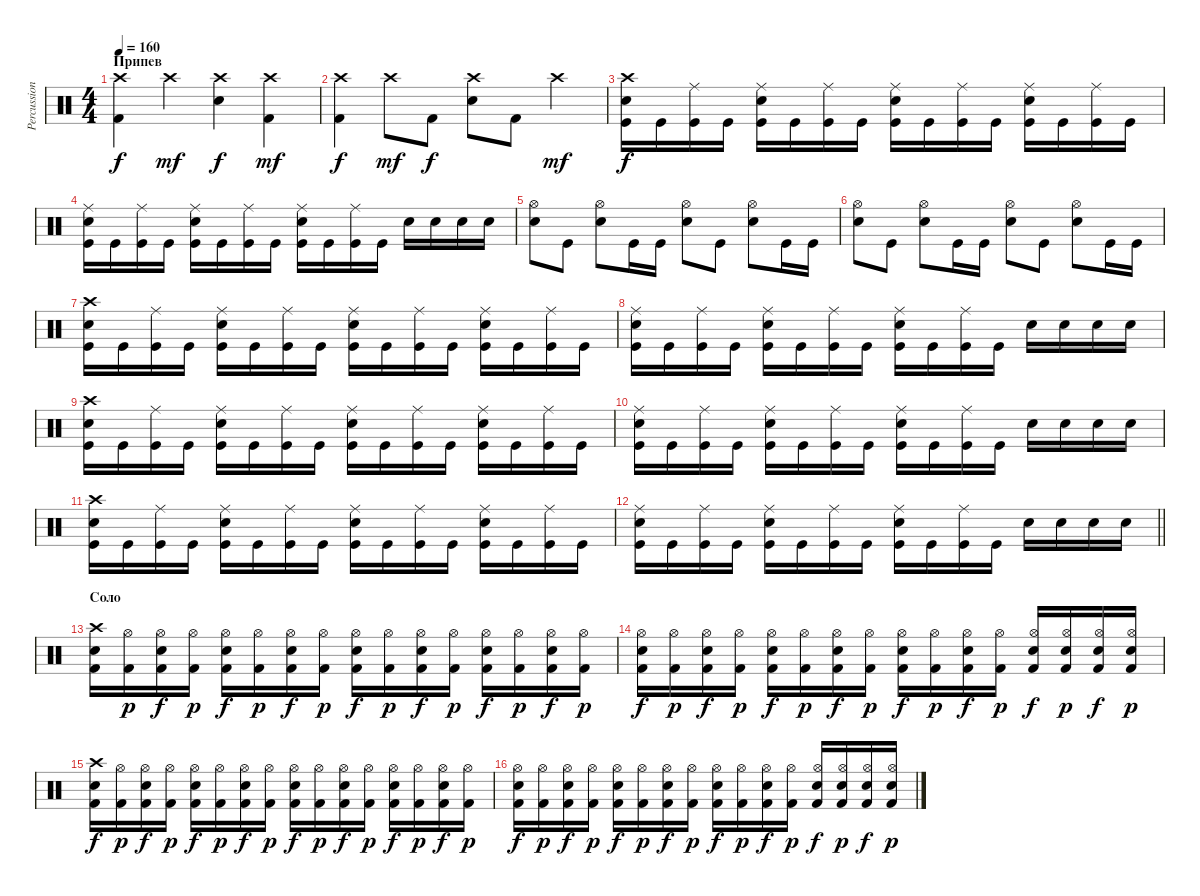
\track ("Percussioni" "Percussion") {instrument percussion}
\staff {score}
\articulation defaults
\ts (4 4)
\section ("" "Припев")
\tempo 160
\clef neutral
\ks c
("Crash high (hit)" "Kick (hit) 2").4{dy f} "Crash high (hit)".4{dy mf} ("Crash high (hit)" "Snare (hit) 2").4{dy f} ("Crash high (hit)" "Kick (hit) 2").4{dy mf} |
("Crash high (hit)" "Kick (hit) 2").4{dy f} "Crash high (hit)".8{dy mf} "Kick (hit) 2".8{dy f} ("Crash high (hit)" "Snare (hit) 2").8 "Kick (hit) 2".8 "Crash high (hit)".4{dy mf} |
("Crash high (hit)" "Snare (hit) 2" "Kick (hit)").16{dy f} "Kick (hit)".16 ("Ride (middle)" "Kick (hit)").16 "Kick (hit)".16 ("Ride (middle)" "Snare (hit) 2" "Kick (hit)").16 "Kick (hit)".16 ("Ride (middle)" "Kick (hit)").16 "Kick (hit)".16 ("Ride (middle)" "Snare (hit) 2" "Kick (hit)").16 "Kick (hit)".16 ("Ride (middle)" "Kick (hit)").16 "Kick (hit)".16 ("Ride (middle)" "Snare (hit) 2" "Kick (hit)").16 "Kick (hit)".16 ("Ride (middle)" "Kick (hit)").16 "Kick (hit)".16 |
("Ride (middle)" "Snare (hit) 2" "Kick (hit)").16 "Kick (hit)".16 ("Ride (middle)" "Kick (hit)").16 "Kick (hit)".16 ("Ride (middle)" "Snare (hit) 2" "Kick (hit)").16 "Kick (hit)".16 ("Ride (middle)" "Kick (hit)").16 "Kick (hit)".16 ("Ride (middle)" "Snare (hit) 2" "Kick (hit)").16 "Kick (hit)".16 ("Ride (middle)" "Kick (hit)").16 "Kick (hit)".16 "Snare (hit) 2".16 "Snare (hit) 2".16 "Snare (hit) 2".16 "Snare (hit) 2".16 |
("Hi-Hat (open)" "Snare (hit) 2").8 "Kick (hit)".8 ("Hi-Hat (open)" "Snare (hit) 2").8 "Kick (hit)".16 "Kick (hit)".16 ("Hi-Hat (open)" "Snare (hit) 2").8 "Kick (hit)".8 ("Hi-Hat (open)" "Snare (hit) 2").8 "Kick (hit)".16 "Kick (hit)".16 |
("Hi-Hat (open)" "Snare (hit) 2").8 "Kick (hit)".8 ("Hi-Hat (open)" "Snare (hit) 2").8 "Kick (hit)".16 "Kick (hit)".16 ("Hi-Hat (open)" "Snare (hit) 2").8 "Kick (hit)".8 ("Hi-Hat (open)" "Snare (hit) 2").8 "Kick (hit)".16 "Kick (hit)".16 |
("Crash high (hit)" "Snare (hit) 2" "Kick (hit)").16 "Kick (hit)".16 ("Ride (middle)" "Kick (hit)").16 "Kick (hit)".16 ("Ride (middle)" "Snare (hit) 2" "Kick (hit)").16 "Kick (hit)".16 ("Ride (middle)" "Kick (hit)").16 "Kick (hit)".16 ("Ride (middle)" "Snare (hit) 2" "Kick (hit)").16 "Kick (hit)".16 ("Ride (middle)" "Kick (hit)").16 "Kick (hit)".16 ("Ride (middle)" "Snare (hit) 2" "Kick (hit)").16 "Kick (hit)".16 ("Ride (middle)" "Kick (hit)").16 "Kick (hit)".16 |
("Ride (middle)" "Snare (hit) 2" "Kick (hit)").16 "Kick (hit)".16 ("Ride (middle)" "Kick (hit)").16 "Kick (hit)".16 ("Ride (middle)" "Snare (hit) 2" "Kick (hit)").16 "Kick (hit)".16 ("Ride (middle)" "Kick (hit)").16 "Kick (hit)".16 ("Ride (middle)" "Snare (hit) 2" "Kick (hit)").16 "Kick (hit)".16 ("Ride (middle)" "Kick (hit)").16 "Kick (hit)".16 "Snare (hit) 2".16 "Snare (hit) 2".16 "Snare (hit) 2".16 "Snare (hit) 2".16 |
("Crash high (hit)" "Snare (hit) 2" "Kick (hit)").16 "Kick (hit)".16 ("Ride (middle)" "Kick (hit)").16 "Kick (hit)".16 ("Ride (middle)" "Snare (hit) 2" "Kick (hit)").16 "Kick (hit)".16 ("Ride (middle)" "Kick (hit)").16 "Kick (hit)".16 ("Ride (middle)" "Snare (hit) 2" "Kick (hit)").16 "Kick (hit)".16 ("Ride (middle)" "Kick (hit)").16 "Kick (hit)".16 ("Ride (middle)" "Snare (hit) 2" "Kick (hit)").16 "Kick (hit)".16 ("Ride (middle)" "Kick (hit)").16 "Kick (hit)".16 |
("Ride (middle)" "Snare (hit) 2" "Kick (hit)").16 "Kick (hit)".16 ("Ride (middle)" "Kick (hit)").16 "Kick (hit)".16 ("Ride (middle)" "Snare (hit) 2" "Kick (hit)").16 "Kick (hit)".16 ("Ride (middle)" "Kick (hit)").16 "Kick (hit)".16 ("Ride (middle)" "Snare (hit) 2" "Kick (hit)").16 "Kick (hit)".16 ("Ride (middle)" "Kick (hit)").16 "Kick (hit)".16 "Snare (hit) 2".16 "Snare (hit) 2".16 "Snare (hit) 2".16 "Snare (hit) 2".16 |
("Crash high (hit)" "Snare (hit) 2" "Kick (hit)").16 "Kick (hit)".16 ("Ride (middle)" "Kick (hit)").16 "Kick (hit)".16 ("Ride (middle)" "Snare (hit) 2" "Kick (hit)").16 "Kick (hit)".16 ("Ride (middle)" "Kick (hit)").16 "Kick (hit)".16 ("Ride (middle)" "Snare (hit) 2" "Kick (hit)").16 "Kick (hit)".16 ("Ride (middle)" "Kick (hit)").16 "Kick (hit)".16 ("Ride (middle)" "Snare (hit) 2" "Kick (hit)").16 "Kick (hit)".16 ("Ride (middle)" "Kick (hit)").16 "Kick (hit)".16 |
\barLineRight lightlight
("Ride (middle)" "Snare (hit) 2" "Kick (hit)").16 "Kick (hit)".16 ("Ride (middle)" "Kick (hit)").16 "Kick (hit)".16 ("Ride (middle)" "Snare (hit) 2" "Kick (hit)").16 "Kick (hit)".16 ("Ride (middle)" "Kick (hit)").16 "Kick (hit)".16 ("Ride (middle)" "Snare (hit) 2" "Kick (hit)").16 "Kick (hit)".16 ("Ride (middle)" "Kick (hit)").16 "Kick (hit)".16 "Snare (hit) 2".16 "Snare (hit) 2".16 "Snare (hit) 2".16 "Snare (hit) 2".16 |
\section ("" "Соло")
("Crash high (hit)" "Electric Snare (hit)" "Kick (hit) 2").16 ("Hi-Hat (open)" "Kick (hit) 2").16{dy p} ("Hi-Hat (open)" "Electric Snare (hit)" "Kick (hit) 2").16{dy f} ("Hi-Hat (open)" "Kick (hit) 2").16{dy p} ("Hi-Hat (open)" "Electric Snare (hit)" "Kick (hit) 2").16{dy f} ("Hi-Hat (open)" "Kick (hit) 2").16{dy p} ("Hi-Hat (open)" "Electric Snare (hit)" "Kick (hit) 2").16{dy f} ("Hi-Hat (open)" "Kick (hit) 2").16{dy p} ("Hi-Hat (open)" "Electric Snare (hit)" "Kick (hit) 2").16{dy f} ("Hi-Hat (open)" "Kick (hit) 2").16{dy p} ("Hi-Hat (open)" "Electric Snare (hit)" "Kick (hit) 2").16{dy f} ("Hi-Hat (open)" "Kick (hit) 2").16{dy p} ("Hi-Hat (open)" "Electric Snare (hit)" "Kick (hit) 2").16{dy f} ("Hi-Hat (open)" "Kick (hit) 2").16{dy p} ("Hi-Hat (open)" "Electric Snare (hit)" "Kick (hit) 2").16{dy f} ("Hi-Hat (open)" "Kick (hit) 2").16{dy p} |
("Hi-Hat (open)" "Electric Snare (hit)" "Kick (hit) 2").16{dy f} ("Hi-Hat (open)" "Kick (hit) 2").16{dy p} ("Hi-Hat (open)" "Electric Snare (hit)" "Kick (hit) 2").16{dy f} ("Hi-Hat (open)" "Kick (hit) 2").16{dy p} ("Hi-Hat (open)" "Electric Snare (hit)" "Kick (hit) 2").16{dy f} ("Hi-Hat (open)" "Kick (hit) 2").16{dy p} ("Hi-Hat (open)" "Electric Snare (hit)" "Kick (hit) 2").16{dy f} ("Hi-Hat (open)" "Kick (hit) 2").16{dy p} ("Hi-Hat (open)" "Electric Snare (hit)" "Kick (hit) 2").16{dy f} ("Hi-Hat (open)" "Kick (hit) 2").16{dy p} ("Hi-Hat (open)" "Electric Snare (hit)" "Kick (hit) 2").16{dy f} ("Hi-Hat (open)" "Kick (hit) 2").16{dy p} ("Hi-Hat (open)" "Electric Snare (hit)" "Kick (hit) 2").16{dy f} ("Hi-Hat (open)" "Electric Snare (hit)" "Kick (hit) 2").16{dy p} ("Hi-Hat (open)" "Electric Snare (hit)" "Kick (hit) 2").16{dy f} ("Hi-Hat (open)" "Electric Snare (hit)" "Kick (hit) 2").16{dy p} |
("Crash high (hit)" "Electric Snare (hit)" "Kick (hit) 2").16{dy f} ("Hi-Hat (open)" "Kick (hit) 2").16{dy p} ("Hi-Hat (open)" "Electric Snare (hit)" "Kick (hit) 2").16{dy f} ("Hi-Hat (open)" "Kick (hit) 2").16{dy p} ("Hi-Hat (open)" "Electric Snare (hit)" "Kick (hit) 2").16{dy f} ("Hi-Hat (open)" "Kick (hit) 2").16{dy p} ("Hi-Hat (open)" "Electric Snare (hit)" "Kick (hit) 2").16{dy f} ("Hi-Hat (open)" "Kick (hit) 2").16{dy p} ("Hi-Hat (open)" "Electric Snare (hit)" "Kick (hit) 2").16{dy f} ("Hi-Hat (open)" "Kick (hit) 2").16{dy p} ("Hi-Hat (open)" "Electric Snare (hit)" "Kick (hit) 2").16{dy f} ("Hi-Hat (open)" "Kick (hit) 2").16{dy p} ("Hi-Hat (open)" "Electric Snare (hit)" "Kick (hit) 2").16{dy f} ("Hi-Hat (open)" "Kick (hit) 2").16{dy p} ("Hi-Hat (open)" "Electric Snare (hit)" "Kick (hit) 2").16{dy f} ("Hi-Hat (open)" "Kick (hit) 2").16{dy p} |
("Hi-Hat (open)" "Electric Snare (hit)" "Kick (hit) 2").16{dy f} ("Hi-Hat (open)" "Kick (hit) 2").16{dy p} ("Hi-Hat (open)" "Electric Snare (hit)" "Kick (hit) 2").16{dy f} ("Hi-Hat (open)" "Kick (hit) 2").16{dy p} ("Hi-Hat (open)" "Electric Snare (hit)" "Kick (hit) 2").16{dy f} ("Hi-Hat (open)" "Kick (hit) 2").16{dy p} ("Hi-Hat (open)" "Electric Snare (hit)" "Kick (hit) 2").16{dy f} ("Hi-Hat (open)" "Kick (hit) 2").16{dy p} ("Hi-Hat (open)" "Electric Snare (hit)" "Kick (hit) 2").16{dy f} ("Hi-Hat (open)" "Kick (hit) 2").16{dy p} ("Hi-Hat (open)" "Electric Snare (hit)" "Kick (hit) 2").16{dy f} ("Hi-Hat (open)" "Kick (hit) 2").16{dy p} ("Hi-Hat (open)" "Electric Snare (hit)" "Kick (hit) 2").16{dy f} ("Hi-Hat (open)" "Electric Snare (hit)" "Kick (hit) 2").16{dy p} ("Hi-Hat (open)" "Electric Snare (hit)" "Kick (hit) 2").16{dy f} ("Hi-Hat (open)" "Electric Snare (hit)" "Kick (hit) 2").16{dy p}
